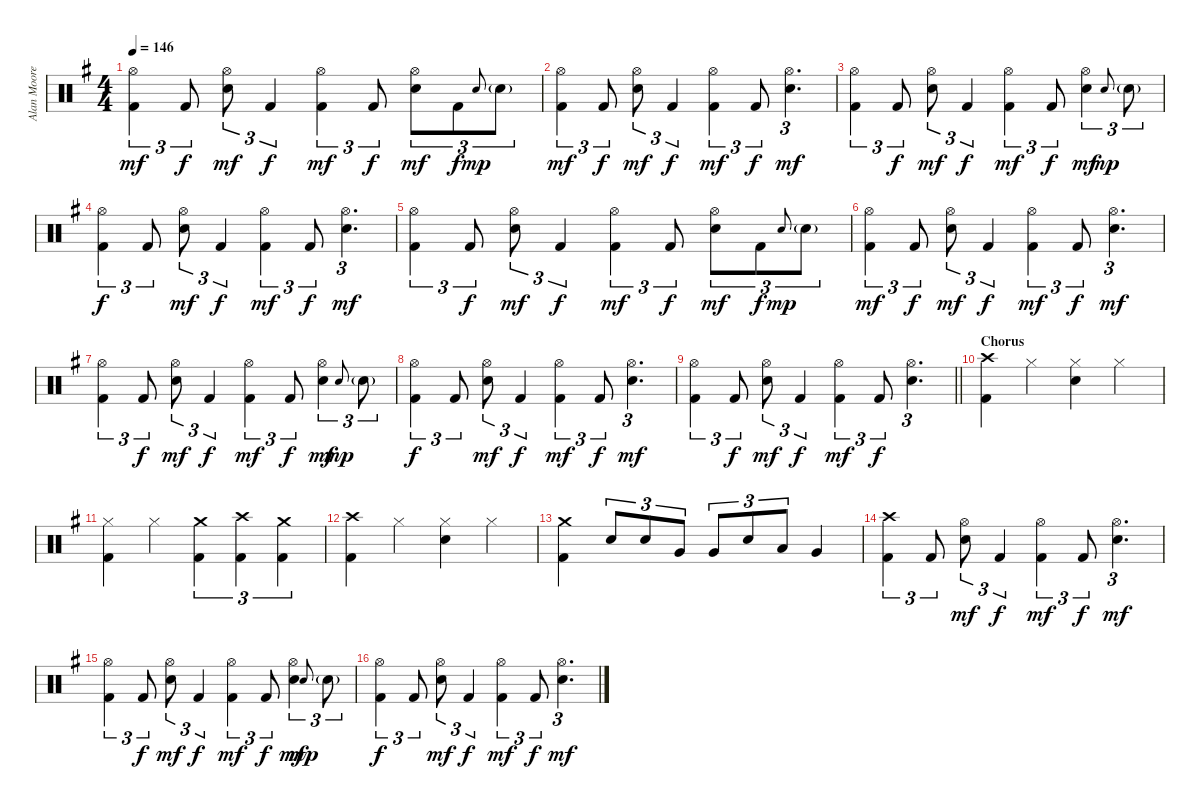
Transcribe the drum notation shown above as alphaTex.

\track ("Alan Moore" "Alan Moore") {instrument percussion}
\staff {score}
\articulation defaults
\ts (4 4)
\tempo 146
\clef neutral
\ks eminor
("Hi-Hat (open)" "Kick (hit) 2").4{tu (3 2) dy mf} "Kick (hit) 2".8{tu (3 2) dy f} ("Hi-Hat (open)" "Electric Snare (hit)").8{tu (3 2) dy mf} "Kick (hit) 2".4{tu (3 2) dy f} ("Hi-Hat (open)" "Kick (hit) 2").4{tu (3 2) dy mf} "Kick (hit) 2".8{tu (3 2) dy f} ("Hi-Hat (open)" "Electric Snare (hit)").8{tu (3 2) dy mf} "Kick (hit) 2".8{tu (3 2) dy f} "Electric Snare (hit)".8{gr onbeat dy mp} "Electric Snare (hit)"{g}.8{tu (3 2)} |
("Hi-Hat (open)" "Kick (hit) 2").4{tu (3 2) dy mf} "Kick (hit) 2".8{tu (3 2) dy f} ("Hi-Hat (open)" "Electric Snare (hit)").8{tu (3 2) dy mf} "Kick (hit) 2".4{tu (3 2) dy f} ("Hi-Hat (open)" "Kick (hit) 2").4{tu (3 2) dy mf} "Kick (hit) 2".8{tu (3 2) dy f} ("Hi-Hat (open)" "Electric Snare (hit)").4{d tu (3 2) dy mf} |
("Hi-Hat (open)" "Kick (hit) 2").4{tu (3 2)} "Kick (hit) 2".8{tu (3 2) dy f} ("Hi-Hat (open)" "Electric Snare (hit)").8{tu (3 2) dy mf} "Kick (hit) 2".4{tu (3 2) dy f} ("Hi-Hat (open)" "Kick (hit) 2").4{tu (3 2) dy mf} "Kick (hit) 2".8{tu (3 2) dy f} ("Hi-Hat (open)" "Electric Snare (hit)").4{tu (3 2) dy mf} "Electric Snare (hit)".8{gr onbeat dy mp} "Electric Snare (hit)"{g}.8{tu (3 2)} |
("Hi-Hat (open)" "Kick (hit) 2").4{tu (3 2) dy f} "Kick (hit) 2".8{tu (3 2)} ("Hi-Hat (open)" "Electric Snare (hit)").8{tu (3 2) dy mf} "Kick (hit) 2".4{tu (3 2) dy f} ("Hi-Hat (open)" "Kick (hit) 2").4{tu (3 2) dy mf} "Kick (hit) 2".8{tu (3 2) dy f} ("Hi-Hat (open)" "Electric Snare (hit)").4{d tu (3 2) dy mf} |
("Hi-Hat (open)" "Kick (hit) 2").4{tu (3 2)} "Kick (hit) 2".8{tu (3 2) dy f} ("Hi-Hat (open)" "Electric Snare (hit)").8{tu (3 2) dy mf} "Kick (hit) 2".4{tu (3 2) dy f} ("Hi-Hat (open)" "Kick (hit) 2").4{tu (3 2) dy mf} "Kick (hit) 2".8{tu (3 2) dy f} ("Hi-Hat (open)" "Electric Snare (hit)").8{tu (3 2) dy mf} "Kick (hit) 2".8{tu (3 2) dy f} "Electric Snare (hit)".8{gr onbeat dy mp} "Electric Snare (hit)"{g}.8{tu (3 2)} |
("Hi-Hat (open)" "Kick (hit) 2").4{tu (3 2) dy mf} "Kick (hit) 2".8{tu (3 2) dy f} ("Hi-Hat (open)" "Electric Snare (hit)").8{tu (3 2) dy mf} "Kick (hit) 2".4{tu (3 2) dy f} ("Hi-Hat (open)" "Kick (hit) 2").4{tu (3 2) dy mf} "Kick (hit) 2".8{tu (3 2) dy f} ("Hi-Hat (open)" "Electric Snare (hit)").4{d tu (3 2) dy mf} |
("Hi-Hat (open)" "Kick (hit) 2").4{tu (3 2)} "Kick (hit) 2".8{tu (3 2) dy f} ("Hi-Hat (open)" "Electric Snare (hit)").8{tu (3 2) dy mf} "Kick (hit) 2".4{tu (3 2) dy f} ("Hi-Hat (open)" "Kick (hit) 2").4{tu (3 2) dy mf} "Kick (hit) 2".8{tu (3 2) dy f} ("Hi-Hat (open)" "Electric Snare (hit)").4{tu (3 2) dy mf} "Electric Snare (hit)".8{gr onbeat dy mp} "Electric Snare (hit)"{g}.8{tu (3 2)} |
("Hi-Hat (open)" "Kick (hit) 2").4{tu (3 2) dy f} "Kick (hit) 2".8{tu (3 2)} ("Hi-Hat (open)" "Electric Snare (hit)").8{tu (3 2) dy mf} "Kick (hit) 2".4{tu (3 2) dy f} ("Hi-Hat (open)" "Kick (hit) 2").4{tu (3 2) dy mf} "Kick (hit) 2".8{tu (3 2) dy f} ("Hi-Hat (open)" "Electric Snare (hit)").4{d tu (3 2) dy mf} |
\barLineRight lightlight
("Hi-Hat (open)" "Kick (hit) 2").4{tu (3 2)} "Kick (hit) 2".8{tu (3 2) dy f} ("Hi-Hat (open)" "Electric Snare (hit)").8{tu (3 2) dy mf} "Kick (hit) 2".4{tu (3 2) dy f} ("Hi-Hat (open)" "Kick (hit) 2").4{tu (3 2) dy mf} "Kick (hit) 2".8{tu (3 2) dy f} ("Hi-Hat (open)" "Electric Snare (hit)").4{d tu (3 2)} |
\section ("" "Chorus")
("Crash high (hit)" "Kick (hit) 2").4 "Hi-Hat (closed)".4 ("Hi-Hat (closed)" "Electric Snare (hit)").4 "Hi-Hat (closed)".4 |
("Hi-Hat (closed)" "Kick (hit) 2").4 "Hi-Hat (closed)".4 ("Crash medium (hit)" "Kick (hit) 2").4{tu (3 2)} ("Crash high (hit)" "Kick (hit) 2").4{tu (3 2)} ("Crash medium (hit)" "Kick (hit) 2").4{tu (3 2)} |
("Crash high (hit)" "Kick (hit) 2").4 "Hi-Hat (closed)".4 ("Hi-Hat (closed)" "Electric Snare (hit)").4 "Hi-Hat (closed)".4 |
("Crash medium (hit)" "Kick (hit) 2").4 "Electric Snare (hit)".8{tu (3 2)} "Electric Snare (hit)".8{tu (3 2)} "Very Low Tom (hit)".8{tu (3 2)} "Very Low Tom (hit)".8{tu (3 2)} "Electric Snare (hit)".8{tu (3 2)} "Low Tom (hit)".8{tu (3 2)} "Very Low Tom (hit)".4 |
("Crash high (hit)" "Kick (hit) 2").4{tu (3 2)} "Kick (hit) 2".8{tu (3 2)} ("Hi-Hat (open)" "Electric Snare (hit)").8{tu (3 2) dy mf} "Kick (hit) 2".4{tu (3 2) dy f} ("Hi-Hat (open)" "Kick (hit) 2").4{tu (3 2) dy mf} "Kick (hit) 2".8{tu (3 2) dy f} ("Hi-Hat (open)" "Electric Snare (hit)").4{d tu (3 2) dy mf} |
("Hi-Hat (open)" "Kick (hit) 2").4{tu (3 2)} "Kick (hit) 2".8{tu (3 2) dy f} ("Hi-Hat (open)" "Electric Snare (hit)").8{tu (3 2) dy mf} "Kick (hit) 2".4{tu (3 2) dy f} ("Hi-Hat (open)" "Kick (hit) 2").4{tu (3 2) dy mf} "Kick (hit) 2".8{tu (3 2) dy f} ("Hi-Hat (open)" "Electric Snare (hit)").4{tu (3 2) dy mf} "Electric Snare (hit)".8{gr onbeat dy mp} "Electric Snare (hit)"{g}.8{tu (3 2)} |
("Hi-Hat (open)" "Kick (hit) 2").4{tu (3 2) dy f} "Kick (hit) 2".8{tu (3 2)} ("Hi-Hat (open)" "Electric Snare (hit)").8{tu (3 2) dy mf} "Kick (hit) 2".4{tu (3 2) dy f} ("Hi-Hat (open)" "Kick (hit) 2").4{tu (3 2) dy mf} "Kick (hit) 2".8{tu (3 2) dy f} ("Hi-Hat (open)" "Electric Snare (hit)").4{d tu (3 2) dy mf}
